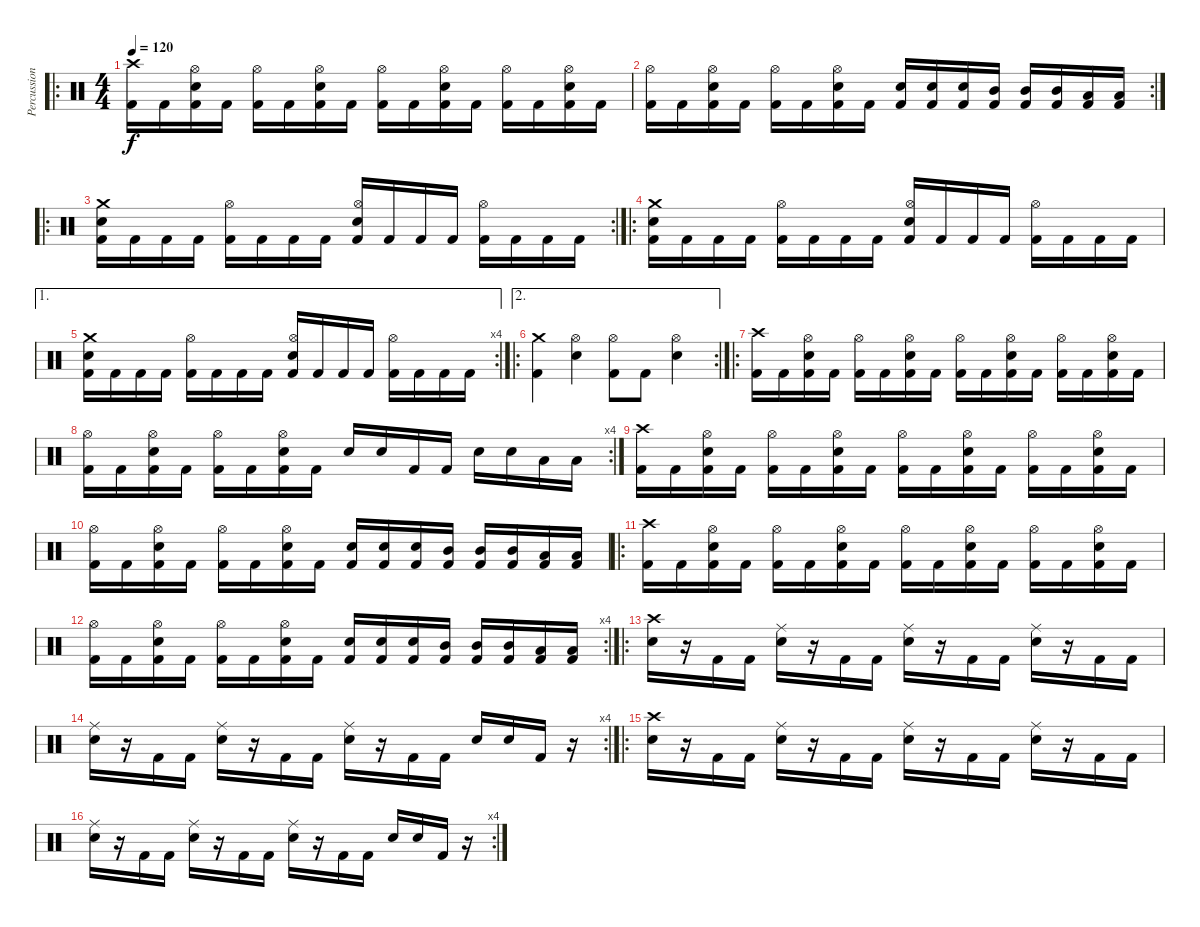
\track ("Percussion" "Percussion") {instrument percussion}
\staff {score}
\articulation defaults
\ro
\ts (4 4)
\tempo 120
\clef neutral
\ks c
("Crash high (hit)" "Kick (hit) 2").16{dy f} "Kick (hit) 2".16 ("Hi-Hat (open)" "Snare (hit) 2" "Kick (hit) 2").16 "Kick (hit) 2".16 ("Hi-Hat (open)" "Kick (hit) 2").16 "Kick (hit) 2".16 ("Hi-Hat (open)" "Snare (hit) 2" "Kick (hit) 2").16 "Kick (hit) 2".16 ("Hi-Hat (open)" "Kick (hit) 2").16 "Kick (hit) 2".16 ("Hi-Hat (open)" "Snare (hit) 2" "Kick (hit) 2").16 "Kick (hit) 2".16 ("Hi-Hat (open)" "Kick (hit) 2").16 "Kick (hit) 2".16 ("Hi-Hat (open)" "Snare (hit) 2" "Kick (hit) 2").16 "Kick (hit) 2".16 |
\rc 2
("Hi-Hat (open)" "Kick (hit) 2").16 "Kick (hit) 2".16 ("Hi-Hat (open)" "Snare (hit) 2" "Kick (hit) 2").16 "Kick (hit) 2".16 ("Hi-Hat (open)" "Kick (hit) 2").16 "Kick (hit) 2".16 ("Hi-Hat (open)" "Snare (hit) 2" "Kick (hit) 2").16 "Kick (hit) 2".16 ("Snare (hit) 2" "Kick (hit) 2").16 ("Snare (hit) 2" "Kick (hit) 2").16 ("Snare (hit) 2" "Kick (hit) 2").16 ("Mid Tom (hit)" "Kick (hit) 2").16 ("Mid Tom (hit)" "Kick (hit) 2").16 ("Mid Tom (hit)" "Kick (hit) 2").16 ("Low Tom (hit)" "Kick (hit) 2").16 ("Low Tom (hit)" "Kick (hit) 2").16 |
\ro
\rc 2
("Crash medium (hit)" "Snare (hit) 2" "Kick (hit) 2").16 "Kick (hit) 2".16 "Kick (hit) 2".16 "Kick (hit) 2".16 ("Hi-Hat (open)" "Kick (hit) 2").16 "Kick (hit) 2".16 "Kick (hit) 2".16 "Kick (hit) 2".16 ("Hi-Hat (open)" "Snare (hit) 2" "Kick (hit) 2").16 "Kick (hit) 2".16 "Kick (hit) 2".16 "Kick (hit) 2".16 ("Hi-Hat (open)" "Kick (hit) 2").16 "Kick (hit) 2".16 "Kick (hit) 2".16 "Kick (hit) 2".16 |
\ro
("Crash medium (hit)" "Snare (hit) 2" "Kick (hit) 2").16 "Kick (hit) 2".16 "Kick (hit) 2".16 "Kick (hit) 2".16 ("Hi-Hat (open)" "Kick (hit) 2").16 "Kick (hit) 2".16 "Kick (hit) 2".16 "Kick (hit) 2".16 ("Hi-Hat (open)" "Snare (hit) 2" "Kick (hit) 2").16 "Kick (hit) 2".16 "Kick (hit) 2".16 "Kick (hit) 2".16 ("Hi-Hat (open)" "Kick (hit) 2").16 "Kick (hit) 2".16 "Kick (hit) 2".16 "Kick (hit) 2".16 |
\ae 1
\rc 4
("Crash medium (hit)" "Snare (hit) 2" "Kick (hit) 2").16 "Kick (hit) 2".16 "Kick (hit) 2".16 "Kick (hit) 2".16 ("Hi-Hat (open)" "Kick (hit) 2").16 "Kick (hit) 2".16 "Kick (hit) 2".16 "Kick (hit) 2".16 ("Hi-Hat (open)" "Snare (hit) 2" "Kick (hit) 2").16 "Kick (hit) 2".16 "Kick (hit) 2".16 "Kick (hit) 2".16 ("Hi-Hat (open)" "Kick (hit) 2").16 "Kick (hit) 2".16 "Kick (hit) 2".16 "Kick (hit) 2".16 |
\ae 2
\ro
\rc 2
("Crash medium (hit)" "Kick (hit) 2").4 ("Hi-Hat (open)" "Snare (hit) 2").4 ("Hi-Hat (open)" "Kick (hit) 2").8 "Kick (hit) 2".8 ("Hi-Hat (open)" "Snare (hit) 2").4 |
\ro
("Crash high (hit)" "Kick (hit) 2").16 "Kick (hit) 2".16 ("Hi-Hat (open)" "Snare (hit) 2" "Kick (hit) 2").16 "Kick (hit) 2".16 ("Hi-Hat (open)" "Kick (hit) 2").16 "Kick (hit) 2".16 ("Hi-Hat (open)" "Snare (hit) 2" "Kick (hit) 2").16 "Kick (hit) 2".16 ("Hi-Hat (open)" "Kick (hit) 2").16 "Kick (hit) 2".16 ("Hi-Hat (open)" "Snare (hit) 2" "Kick (hit) 2").16 "Kick (hit) 2".16 ("Hi-Hat (open)" "Kick (hit) 2").16 "Kick (hit) 2".16 ("Hi-Hat (open)" "Snare (hit) 2" "Kick (hit) 2").16 "Kick (hit) 2".16 |
\rc 4
("Hi-Hat (open)" "Kick (hit) 2").16 "Kick (hit) 2".16 ("Hi-Hat (open)" "Snare (hit) 2" "Kick (hit) 2").16 "Kick (hit) 2".16 ("Hi-Hat (open)" "Kick (hit) 2").16 "Kick (hit) 2".16 ("Hi-Hat (open)" "Snare (hit) 2" "Kick (hit) 2").16 "Kick (hit) 2".16 "Snare (hit) 2".16 "Snare (hit) 2".16 "Kick (hit) 2".16 "Kick (hit) 2".16 "Snare (hit) 2".16 "Snare (hit) 2".16 "Low Tom (hit)".16 "Low Tom (hit)".16 |
("Crash high (hit)" "Kick (hit) 2").16 "Kick (hit) 2".16 ("Hi-Hat (open)" "Snare (hit) 2" "Kick (hit) 2").16 "Kick (hit) 2".16 ("Hi-Hat (open)" "Kick (hit) 2").16 "Kick (hit) 2".16 ("Hi-Hat (open)" "Snare (hit) 2" "Kick (hit) 2").16 "Kick (hit) 2".16 ("Hi-Hat (open)" "Kick (hit) 2").16 "Kick (hit) 2".16 ("Hi-Hat (open)" "Snare (hit) 2" "Kick (hit) 2").16 "Kick (hit) 2".16 ("Hi-Hat (open)" "Kick (hit) 2").16 "Kick (hit) 2".16 ("Hi-Hat (open)" "Snare (hit) 2" "Kick (hit) 2").16 "Kick (hit) 2".16 |
("Hi-Hat (open)" "Kick (hit) 2").16 "Kick (hit) 2".16 ("Hi-Hat (open)" "Snare (hit) 2" "Kick (hit) 2").16 "Kick (hit) 2".16 ("Hi-Hat (open)" "Kick (hit) 2").16 "Kick (hit) 2".16 ("Hi-Hat (open)" "Snare (hit) 2" "Kick (hit) 2").16 "Kick (hit) 2".16 ("Snare (hit) 2" "Kick (hit) 2").16 ("Snare (hit) 2" "Kick (hit) 2").16 ("Snare (hit) 2" "Kick (hit) 2").16 ("Mid Tom (hit)" "Kick (hit) 2").16 ("Mid Tom (hit)" "Kick (hit) 2").16 ("Mid Tom (hit)" "Kick (hit) 2").16 ("Low Tom (hit)" "Kick (hit) 2").16 ("Low Tom (hit)" "Kick (hit) 2").16 |
\ro
("Crash high (hit)" "Kick (hit) 2").16 "Kick (hit) 2".16 ("Hi-Hat (open)" "Snare (hit) 2" "Kick (hit) 2").16 "Kick (hit) 2".16 ("Hi-Hat (open)" "Kick (hit) 2").16 "Kick (hit) 2".16 ("Hi-Hat (open)" "Snare (hit) 2" "Kick (hit) 2").16 "Kick (hit) 2".16 ("Hi-Hat (open)" "Kick (hit) 2").16 "Kick (hit) 2".16 ("Hi-Hat (open)" "Snare (hit) 2" "Kick (hit) 2").16 "Kick (hit) 2".16 ("Hi-Hat (open)" "Kick (hit) 2").16 "Kick (hit) 2".16 ("Hi-Hat (open)" "Snare (hit) 2" "Kick (hit) 2").16 "Kick (hit) 2".16 |
\rc 4
("Hi-Hat (open)" "Kick (hit) 2").16 "Kick (hit) 2".16 ("Hi-Hat (open)" "Snare (hit) 2" "Kick (hit) 2").16 "Kick (hit) 2".16 ("Hi-Hat (open)" "Kick (hit) 2").16 "Kick (hit) 2".16 ("Hi-Hat (open)" "Snare (hit) 2" "Kick (hit) 2").16 "Kick (hit) 2".16 ("Snare (hit) 2" "Kick (hit) 2").16 ("Snare (hit) 2" "Kick (hit) 2").16 ("Snare (hit) 2" "Kick (hit) 2").16 ("Mid Tom (hit)" "Kick (hit) 2").16 ("Mid Tom (hit)" "Kick (hit) 2").16 ("Mid Tom (hit)" "Kick (hit) 2").16 ("Low Tom (hit)" "Kick (hit) 2").16 ("Low Tom (hit)" "Kick (hit) 2").16 |
\ro
("Crash high (hit)" "Electric Snare (hit)").16 r.16 "Kick (hit) 2".16 "Kick (hit) 2".16 ("Ride (middle)" "Electric Snare (hit)").16 r.16 "Kick (hit) 2".16 "Kick (hit) 2".16 ("Ride (middle)" "Electric Snare (hit)").16 r.16 "Kick (hit) 2".16 "Kick (hit) 2".16 ("Ride (middle)" "Electric Snare (hit)").16 r.16 "Kick (hit) 2".16 "Kick (hit) 2".16 |
\rc 4
("Ride (middle)" "Electric Snare (hit)").16 r.16 "Kick (hit) 2".16 "Kick (hit) 2".16 ("Ride (middle)" "Electric Snare (hit)").16 r.16 "Kick (hit) 2".16 "Kick (hit) 2".16 ("Ride (middle)" "Electric Snare (hit)").16 r.16 "Kick (hit) 2".16 "Kick (hit) 2".16 "Electric Snare (hit)".16 "Electric Snare (hit)".16 "Kick (hit) 2".16 r.16 |
\ro
("Crash high (hit)" "Electric Snare (hit)").16 r.16 "Kick (hit) 2".16 "Kick (hit) 2".16 ("Ride (middle)" "Electric Snare (hit)").16 r.16 "Kick (hit) 2".16 "Kick (hit) 2".16 ("Ride (middle)" "Electric Snare (hit)").16 r.16 "Kick (hit) 2".16 "Kick (hit) 2".16 ("Ride (middle)" "Electric Snare (hit)").16 r.16 "Kick (hit) 2".16 "Kick (hit) 2".16 |
\rc 4
("Ride (middle)" "Electric Snare (hit)").16 r.16 "Kick (hit) 2".16 "Kick (hit) 2".16 ("Ride (middle)" "Electric Snare (hit)").16 r.16 "Kick (hit) 2".16 "Kick (hit) 2".16 ("Ride (middle)" "Electric Snare (hit)").16 r.16 "Kick (hit) 2".16 "Kick (hit) 2".16 "Electric Snare (hit)".16 "Electric Snare (hit)".16 "Kick (hit) 2".16 r.16
